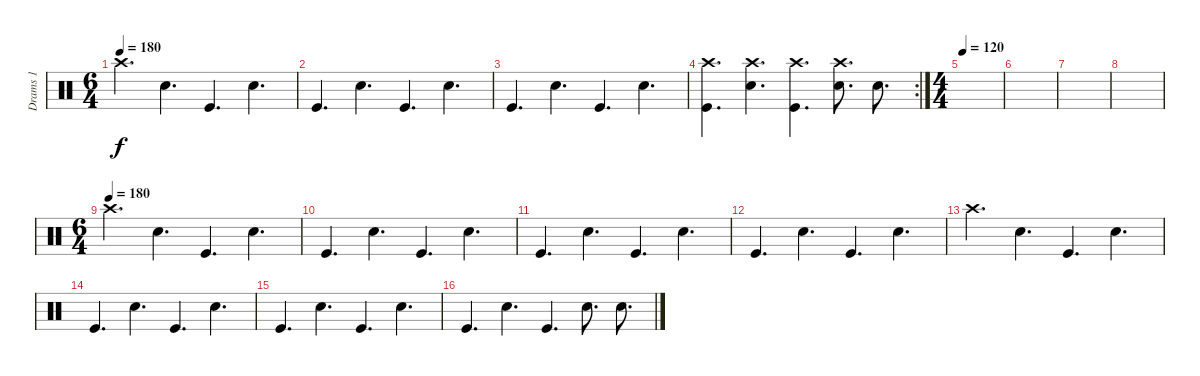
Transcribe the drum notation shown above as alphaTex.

\track ("Drams 1" "Drams 1") {instrument percussion}
\staff {score}
\articulation defaults
\ts (6 4)
\tempo 180
\clef neutral
\ks c "Crash high (hit)".4{d dy f} "Snare (hit) 2".4{d} "Kick (hit)".4{d} "Snare (hit) 2".4{d}
|
"Kick (hit)".4{d} "Snare (hit) 2".4{d} "Kick (hit)".4{d} "Snare (hit) 2".4{d} |
"Kick (hit)".4{d} "Snare (hit) 2".4{d} "Kick (hit)".4{d} "Snare (hit) 2".4{d} |
\rc 2
("Kick (hit)" "Crash high (hit)").4{d} ("Snare (hit) 2" "Crash high (hit)").4{d} ("Kick (hit)" "Crash high (hit)").4{d} ("Snare (hit) 2" "Crash high (hit)").8{d} "Snare (hit) 2".8{d} |
\ts (4 4)
\tempo 120
|
|
|
|
\ts (6 4)
\tempo (180)
"Crash high (hit)".4{d} "Snare (hit) 2".4{d} "Kick (hit)".4{d} "Snare (hit) 2".4{d} |
"Kick (hit)".4{d} "Snare (hit) 2".4{d} "Kick (hit)".4{d} "Snare (hit) 2".4{d} |
"Kick (hit)".4{d} "Snare (hit) 2".4{d} "Kick (hit)".4{d} "Snare (hit) 2".4{d} |
"Kick (hit)".4{d} "Snare (hit) 2".4{d} "Kick (hit)".4{d} "Snare (hit) 2".4{d} |
"Crash high (hit)".4{d} "Snare (hit) 2".4{d} "Kick (hit)".4{d} "Snare (hit) 2".4{d} |
"Kick (hit)".4{d} "Snare (hit) 2".4{d} "Kick (hit)".4{d} "Snare (hit) 2".4{d} |
"Kick (hit)".4{d} "Snare (hit) 2".4{d} "Kick (hit)".4{d} "Snare (hit) 2".4{d} |
"Kick (hit)".4{d} "Snare (hit) 2".4{d} "Kick (hit)".4{d} "Snare (hit) 2".8{d} "Snare (hit) 2".8{d}
